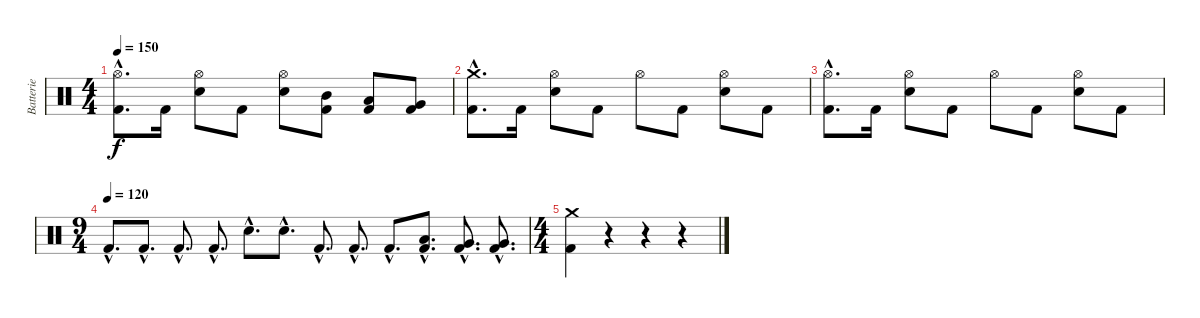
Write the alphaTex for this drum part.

\track ("Batterie" "Batterie") {instrument percussion}
\staff {score}
\articulation defaults
\ts (4 4)
\tempo 150
\clef neutral
\ks c
("Hi-Hat (open)"{hac} "Kick (hit) 2"{hac}).8{d dy f} "Kick (hit) 2".16 ("Hi-Hat (open)" "Electric Snare (hit)").8 "Kick (hit) 2".8 ("Hi-Hat (open)" "Electric Snare (hit)").8 ("Mid Tom (hit)" "Kick (hit) 2").8 ("Low Tom (hit)" "Kick (hit) 2").8 ("Very Low Tom (hit)" "Kick (hit) 2").8 |
("Crash medium (hit)"{hac} "Kick (hit) 2"{hac}).8{d} "Kick (hit) 2".16 ("Hi-Hat (open)" "Electric Snare (hit)").8 "Kick (hit) 2".8 "Hi-Hat (open)".8 "Kick (hit) 2".8 ("Hi-Hat (open)" "Electric Snare (hit)").8 "Kick (hit) 2".8 |
("Hi-Hat (open)"{hac} "Kick (hit) 2"{hac}).8{d} "Kick (hit) 2".16 ("Hi-Hat (open)" "Electric Snare (hit)").8 "Kick (hit) 2".8 "Hi-Hat (open)".8 "Kick (hit) 2".8 ("Hi-Hat (open)" "Electric Snare (hit)").8 "Kick (hit) 2".8 |
\ts (9 4)
\tempo (120)
"Kick (hit) 2"{hac}.8{d} "Kick (hit) 2"{hac}.8{d} "Kick (hit) 2"{hac}.8{d} "Kick (hit) 2"{hac}.8{d} "Electric Snare (hit)"{hac}.8{d} "Electric Snare (hit)"{hac}.8{d} "Kick (hit) 2"{hac}.8{d} "Kick (hit) 2"{hac}.8{d} "Kick (hit) 2"{hac}.8{d} ("Low Tom (hit)"{hac} "Kick (hit) 2"{hac}).8{d} ("Very Low Tom (hit)"{hac} "Kick (hit) 2"{hac}).8{d} ("Very Low Tom (hit)"{hac} "Kick (hit) 2"{hac}).8{d} |
\ts (4 4)
("Crash medium (hit)" "Kick (hit) 2").4 r.4 r.4 r.4
